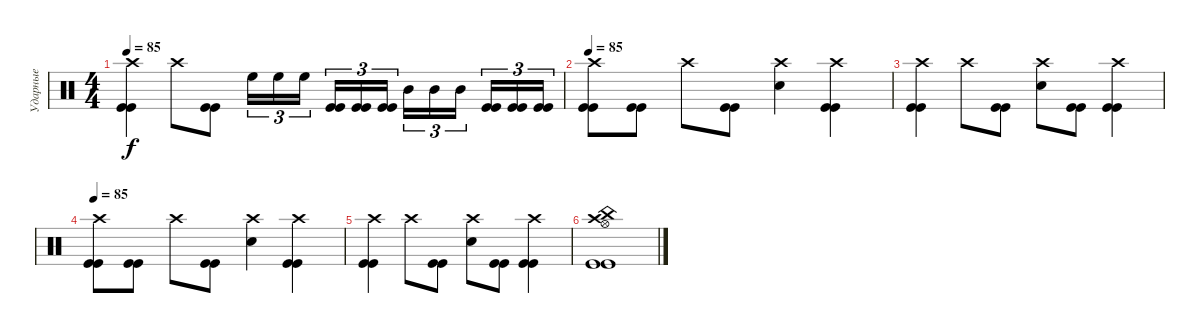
\track ("Ударные" "Ударные") {instrument percussion}
\staff {score}
\articulation defaults
\ts (4 4)
\tempo 85
\clef neutral
\ks c
("Crash high (hit)" "Kick (hit)" "Kick (hit)").4{dy f} "Crash high (hit)".8 ("Kick (hit)" "Kick (hit)").8 "High Floor Tom (hit)".16{tu (3 2)} "High Floor Tom (hit)".16{tu (3 2)} "High Floor Tom (hit)".16{tu (3 2) beam splitsecondary} ("Kick (hit)" "Kick (hit)").16{tu (3 2)} ("Kick (hit)" "Kick (hit)").16{tu (3 2)} ("Kick (hit)" "Kick (hit)").16{tu (3 2)} "Mid Tom (hit)".16{tu (3 2)} "Mid Tom (hit)".16{tu (3 2)} "Mid Tom (hit)".16{tu (3 2) beam splitsecondary} ("Kick (hit)" "Kick (hit)").16{tu (3 2)} ("Kick (hit)" "Kick (hit)").16{tu (3 2)} ("Kick (hit)" "Kick (hit)").16{tu (3 2)} |
\tempo 85
("Crash high (hit)" "Kick (hit)" "Kick (hit)").8 ("Kick (hit)" "Kick (hit)").8 "Crash high (hit)".8 ("Kick (hit)" "Kick (hit)").8 ("Crash high (hit)" "Electric Snare (hit)").4 ("Crash high (hit)" "Kick (hit)" "Kick (hit)").4 |
("Crash high (hit)" "Kick (hit)" "Kick (hit)").4 "Crash high (hit)".8 ("Kick (hit)" "Kick (hit)").8 ("Crash high (hit)" "Electric Snare (hit)").8 ("Kick (hit)" "Kick (hit)").8 ("Crash high (hit)" "Kick (hit)" "Kick (hit)").4 |
\tempo 85
("Crash high (hit)" "Kick (hit)" "Kick (hit)").8 ("Kick (hit)" "Kick (hit)").8 "Crash high (hit)".8 ("Kick (hit)" "Kick (hit)").8 ("Crash high (hit)" "Electric Snare (hit)").4 ("Crash high (hit)" "Kick (hit)" "Kick (hit)").4 |
("Crash high (hit)" "Kick (hit)" "Kick (hit)").4 "Crash high (hit)".8 ("Kick (hit)" "Kick (hit)").8 ("Crash high (hit)" "Electric Snare (hit)").8 ("Kick (hit)" "Kick (hit)").8 ("Crash high (hit)" "Kick (hit)" "Kick (hit)").4 |
("China (hit)" "Crash high (hit)" "Hi-Hat (open)" "Kick (hit)" "Kick (hit)").1
